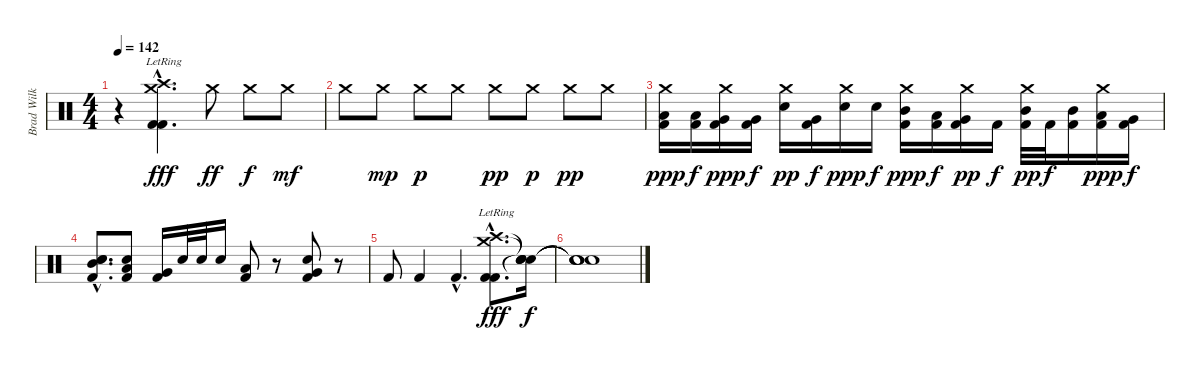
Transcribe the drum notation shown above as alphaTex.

\track ("Brad Wilk" "Brad Wilk") {instrument percussion}
\staff {score}
\articulation defaults
\ts (4 4)
\tempo 142
\clef neutral
\ks c
r.4{dy f} ("Crash medium (hit)"{hac lr} "Crash high (hit)"{hac lr} "Kick (hit) 2"{hac} "Kick (hit) 2"{hac}).4{d dy fff} "Crash medium (hit)".8{dy ff} "Crash medium (hit)".8{dy f} "Crash medium (hit)".8{dy mf} |
"Crash medium (hit)".8 "Crash medium (hit)".8{dy mp} "Crash medium (hit)".8{dy p} "Crash medium (hit)".8 "Crash medium (hit)".8{dy pp} "Crash medium (hit)".8{dy p} "Crash medium (hit)".8{dy pp} "Crash medium (hit)".8 |
("Crash medium (hit)" "Low Tom (hit)" "Kick (hit) 2").16{dy ppp} ("Low Tom (hit)" "Kick (hit) 2").16{dy f} ("Crash medium (hit)" "Very Low Tom (hit)" "Kick (hit) 2").16{dy ppp} ("Very Low Tom (hit)" "Kick (hit) 2").16{dy f} ("Crash medium (hit)" "Electric Snare (hit)").16{dy pp} ("Very Low Tom (hit)" "Kick (hit) 2").16{dy f} ("Crash medium (hit)" "Electric Snare (hit)").16{dy ppp} "Electric Snare (hit)".16{dy f} ("Crash medium (hit)" "Mid Tom (hit)" "Kick (hit) 2").16{dy ppp} ("Low Tom (hit)" "Kick (hit) 2").16{dy f} ("Crash medium (hit)" "Very Low Tom (hit)" "Kick (hit) 2").16{dy pp} "Kick (hit) 2".16{dy f} ("Crash medium (hit)" "Mid Tom (hit)" "Kick (hit) 2").32{dy pp} "Kick (hit) 2".32{dy f} ("Mid Tom (hit)" "Kick (hit) 2").16 ("Crash medium (hit)" "Low Tom (hit)" "Kick (hit) 2").16{dy ppp} ("Very Low Tom (hit)" "Kick (hit) 2").16{dy f} |
("Electric Snare (hit)"{hac} "Electric Snare (hit)"{hac} "Mid Tom (hit)"{hac} "Kick (hit) 2"{hac}).8{d bd 60} ("Electric Snare (hit)" "Low Tom (hit)" "Kick (hit) 2").8 ("Very Low Tom (hit)" "Kick (hit) 2").16 "Electric Snare (hit)".32 "Electric Snare (hit)".32 "Electric Snare (hit)".16 ("Low Tom (hit)" "Kick (hit) 2").8 r.8 ("Electric Snare (hit)" "Very Low Tom (hit)" "Kick (hit) 2").8 r.8 |
"Kick (hit) 2".8 "Kick (hit) 2".4 "Kick (hit) 2"{hac}.4{d} ("Crash medium (hit)"{hac lr} "Crash high (hit)"{hac lr} "Kick (hit) 2"{hac} "Kick (hit) 2"{hac}).8{d dy fff} ("Snare (hit)"{t} "Snare (hit)"{t} "Snare (hit)"{t} "Snare (hit)"{t}).16{dy f} |
("Snare (hit)"{t} "Snare (hit)"{t} "Snare (hit)"{t} "Snare (hit)"{t}).1
